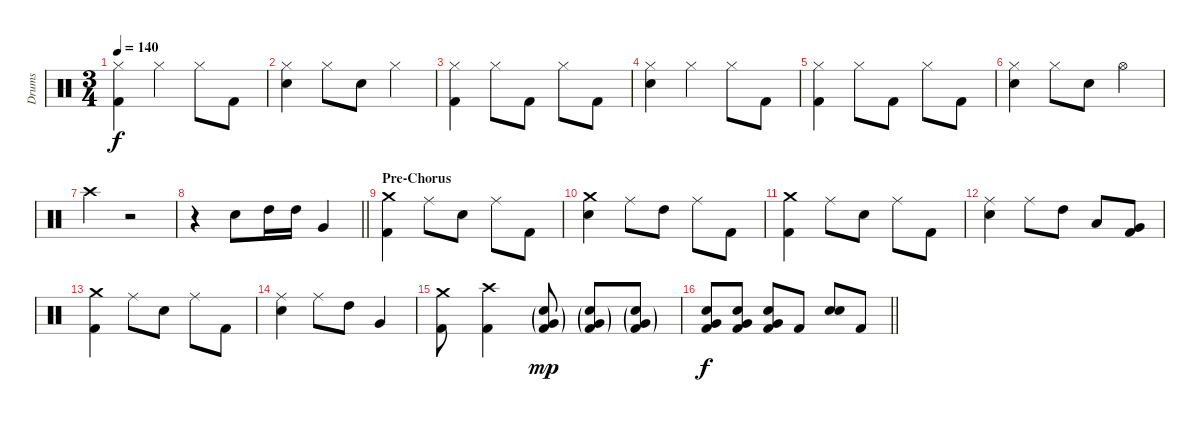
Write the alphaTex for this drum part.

\track ("Drums" "Drums") {instrument percussion}
\staff {score}
\articulation defaults
\ts (3 4)
\tempo 140
\clef neutral
\ks c
("Kick (hit) 2" "Hi-Hat (closed)").4{dy f} "Hi-Hat (closed)".4 "Hi-Hat (closed)".8 "Kick (hit) 2".8 |
("Electric Snare (hit)" "Hi-Hat (closed)").4 "Hi-Hat (closed)".8 "Electric Snare (hit)".8 "Hi-Hat (closed)".4 |
("Kick (hit) 2" "Hi-Hat (closed)").4 "Hi-Hat (closed)".8 "Kick (hit) 2".8 "Hi-Hat (closed)".8 "Kick (hit) 2".8 |
("Electric Snare (hit)" "Hi-Hat (closed)").4 "Hi-Hat (closed)".4 "Hi-Hat (closed)".8 "Kick (hit) 2".8 |
("Kick (hit) 2" "Hi-Hat (closed)").4 "Hi-Hat (closed)".8 "Kick (hit) 2".8 "Hi-Hat (closed)".8 "Kick (hit) 2".8 |
("Electric Snare (hit)" "Hi-Hat (closed)").4 "Hi-Hat (closed)".8 "Electric Snare (hit)".8 "Hi-Hat (open)".4 |
"Crash high (hit)".4 r.2 |
\barLineRight lightlight
r.4 "Electric Snare (hit)".8 "High Tom (hit)".16 "High Tom (hit)".16 "Very Low Tom (hit)".4 |
\section ("" "Pre-Chorus")
("Kick (hit) 2" "Crash medium (hit)").4 "Ride (middle)".8 "Electric Snare (hit)".8 "Ride (middle)".8 "Kick (hit) 2".8 |
("Electric Snare (hit)" "Crash medium (hit)").4 "Ride (middle)".8 "High Tom (hit)".8 "Ride (middle)".8 "Kick (hit) 2".8 |
("Kick (hit) 2" "Crash medium (hit)").4 "Ride (middle)".8 "Electric Snare (hit)".8 "Ride (middle)".8 "Kick (hit) 2".8 |
("Electric Snare (hit)" "Ride (middle)").4 "Ride (middle)".8 "High Tom (hit)".8 "Low Tom (hit)".8 ("Kick (hit) 2" "Very Low Tom (hit)").8 |
("Kick (hit) 2" "Crash medium (hit)").4 "Ride (middle)".8 "Electric Snare (hit)".8 "Ride (middle)".8 "Kick (hit) 2".8 |
("Electric Snare (hit)" "Ride (middle)").4 "Ride (middle)".8 "High Tom (hit)".8 "Very Low Tom (hit)".4 |
("Kick (hit) 2" "Crash medium (hit)").8 ("Kick (hit) 2" "Crash high (hit)").4 ("Kick (hit) 2"{g} "Very Low Tom (hit)"{g} "Electric Snare (hit)"{g}).8{dy mp} ("Kick (hit) 2"{g} "Very Low Tom (hit)"{g} "Electric Snare (hit)"{g}).8 ("Kick (hit) 2"{g} "Very Low Tom (hit)"{g} "Electric Snare (hit)"{g}).8 |
\barLineRight lightlight
("Kick (hit) 2" "Very Low Tom (hit)" "Electric Snare (hit)").8{dy f} ("Kick (hit) 2" "Very Low Tom (hit)" "Electric Snare (hit)").8 ("Kick (hit) 2" "Very Low Tom (hit)" "Electric Snare (hit)").8 "Kick (hit) 2".8 ("Electric Snare (hit)" "Electric Snare (hit)").8 "Kick (hit) 2".8
